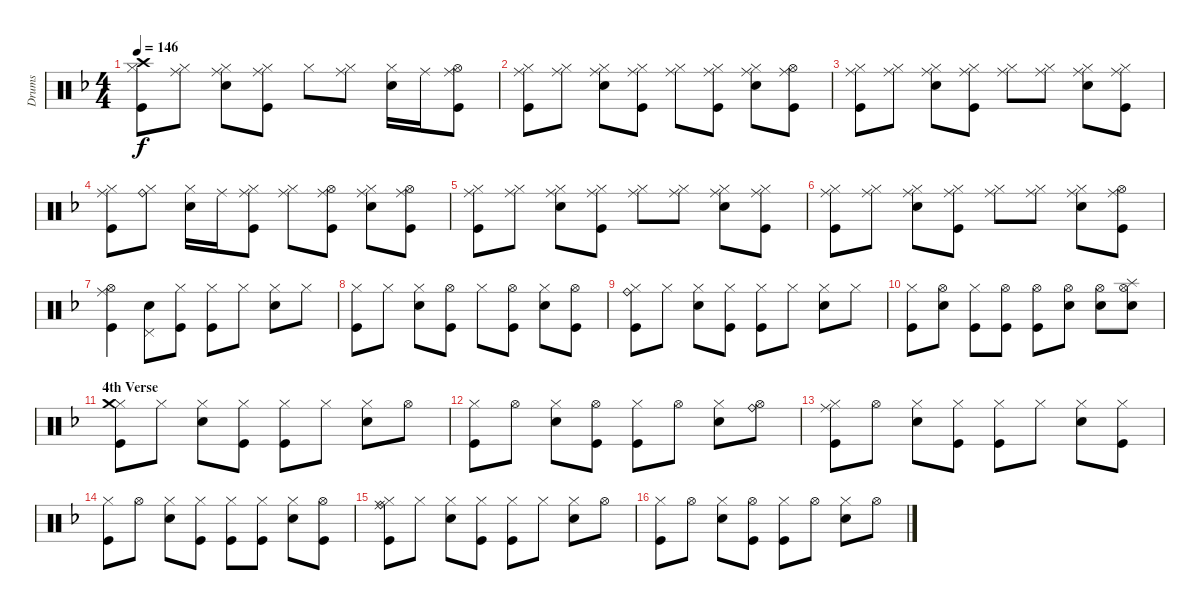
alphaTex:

\track ("Drums" "Drums") {instrument percussion}
\staff {score}
\articulation defaults
\ts (4 4)
\tempo 146
\clef neutral
\ks f
("Kick (hit)" "Hi-Hat (closed)" "Crash high (hit)").8{dy f} ("Hi-Hat (closed)" "Ride (middle)").8 ("Ride (middle)" "Snare (hit) 2" "Hi-Hat (closed)").8 ("Kick (hit)" "Hi-Hat (closed)" "Ride (middle)").8 "Hi-Hat (closed)".8 ("Hi-Hat (closed)" "Ride (middle)").8 ("Snare (hit) 2" "Hi-Hat (closed)").16 "Ride (middle)".16 ("Ride (middle)" "Kick (hit)" "Hi-Hat (open)").8 |
("Hi-Hat (closed)" "Ride (middle)" "Kick (hit)").8 ("Hi-Hat (closed)" "Ride (middle)").8 ("Ride (middle)" "Snare (hit) 2" "Hi-Hat (closed)").8 ("Kick (hit)" "Hi-Hat (closed)" "Ride (middle)").8 ("Hi-Hat (closed)" "Ride (middle)").8 ("Kick (hit)" "Hi-Hat (closed)" "Ride (middle)").8 ("Ride (middle)" "Snare (hit) 2" "Hi-Hat (closed)").8 ("Hi-Hat (open)" "Ride (middle)" "Kick (hit)").8 |
("Hi-Hat (closed)" "Ride (middle)" "Kick (hit)").8 ("Hi-Hat (closed)" "Ride (middle)").8 ("Ride (middle)" "Snare (hit) 2" "Hi-Hat (closed)").8 ("Hi-Hat (closed)" "Ride (middle)" "Kick (hit)").8 ("Hi-Hat (closed)" "Ride (middle)").8 ("Hi-Hat (closed)" "Ride (middle)").8 ("Ride (middle)" "Snare (hit) 2" "Hi-Hat (closed)").8 ("Kick (hit)" "Hi-Hat (closed)" "Ride (middle)").8 |
("Ride (middle)" "Kick (hit)" "Hi-Hat (closed)").8 ("Hi-Hat (closed)" "Ride (bell)").8 ("Snare (hit) 2" "Hi-Hat (closed)").16 "Ride (middle)".16 ("Hi-Hat (closed)" "Ride (middle)" "Kick (hit)").8 ("Hi-Hat (closed)" "Ride (middle)").8 ("Ride (middle)" "Kick (hit)" "Hi-Hat (open)").8 ("Snare (hit) 2" "Hi-Hat (closed)" "Ride (middle)").8 ("Ride (middle)" "Kick (hit)" "Hi-Hat (open)").8 |
("Kick (hit)" "Hi-Hat (closed)" "Ride (middle)").8 ("Hi-Hat (closed)" "Ride (middle)").8 ("Ride (middle)" "Snare (hit) 2" "Hi-Hat (closed)").8 ("Ride (middle)" "Kick (hit)" "Hi-Hat (closed)").8 ("Hi-Hat (closed)" "Ride (middle)").8 ("Hi-Hat (closed)" "Ride (middle)").8 ("Ride (middle)" "Snare (hit) 2" "Hi-Hat (closed)").8 ("Kick (hit)" "Hi-Hat (closed)" "Ride (middle)").8 |
("Ride (middle)" "Kick (hit)" "Hi-Hat (closed)").8 ("Hi-Hat (closed)" "Ride (middle)").8 ("Snare (hit) 2" "Hi-Hat (closed)" "Ride (middle)").8 ("Kick (hit)" "Hi-Hat (closed)" "Ride (middle)").8 ("Hi-Hat (closed)" "Ride (middle)").8 ("Hi-Hat (closed)" "Ride (middle)").8 ("Snare (hit) 2" "Hi-Hat (closed)" "Ride (middle)").8 ("Ride (middle)" "Kick (hit)" "Hi-Hat (open)").8 |
("Kick (hit)" "Hi-Hat (open)" "Ride (middle)").4 ("Snare (hit) 2" "Pedal Hi-Hat (hit)").8 ("Kick (hit)" "Hi-Hat (closed)").8 ("Kick (hit)" "Hi-Hat (closed)").8 "Hi-Hat (closed)".8 ("Snare (hit) 2" "Hi-Hat (closed)").8 "Hi-Hat (closed)".8 |
("Kick (hit)" "Hi-Hat (closed)").8 "Hi-Hat (closed)".8 ("Snare (hit) 2" "Hi-Hat (closed)").8 ("Kick (hit)" "Hi-Hat (open)").8 "Hi-Hat (closed)".8 ("Kick (hit)" "Hi-Hat (open)").8 ("Snare (hit) 2" "Hi-Hat (closed)").8 ("Kick (hit)" "Hi-Hat (open)").8 |
("Kick (hit)" "Hi-Hat (closed)" "Ride (bell)").8 "Hi-Hat (closed)".8 ("Snare (hit) 2" "Hi-Hat (closed)").8 ("Kick (hit)" "Hi-Hat (closed)").8 ("Kick (hit)" "Hi-Hat (closed)").8 "Hi-Hat (closed)".8 ("Snare (hit) 2" "Hi-Hat (closed)").8 "Hi-Hat (closed)".8 |
("Kick (hit)" "Hi-Hat (closed)").8 ("Snare (hit) 2" "Hi-Hat (open)").8 ("Kick (hit)" "Hi-Hat (closed)").8 ("Kick (hit)" "Hi-Hat (open)").8 ("Kick (hit)" "Hi-Hat (open)").8 ("Snare (hit) 2" "Hi-Hat (open)").8 ("Snare (hit) 2" "Hi-Hat (open)").8 ("Snare (hit) 2" "Hi-Hat (open)" "Splash (hit)").8 |
\section ("" "4th Verse")
("Kick (hit)" "Hi-Hat (closed)" "Crash medium (hit)").8 "Hi-Hat (closed)".8 ("Snare (hit) 2" "Hi-Hat (closed)").8 ("Kick (hit)" "Hi-Hat (closed)").8 ("Kick (hit)" "Hi-Hat (closed)").8 "Hi-Hat (closed)".8 ("Snare (hit) 2" "Hi-Hat (closed)").8 "Hi-Hat (open)".8 |
("Kick (hit)" "Hi-Hat (closed)").8 "Hi-Hat (open)".8 ("Snare (hit) 2" "Hi-Hat (closed)").8 ("Kick (hit)" "Hi-Hat (open)").8 ("Kick (hit)" "Hi-Hat (closed)").8 "Hi-Hat (open)".8 ("Snare (hit) 2" "Hi-Hat (closed)").8 ("Hi-Hat (open)" "Ride (bell)").8 |
("Kick (hit)" "Hi-Hat (closed)" "Ride (middle)").8 "Hi-Hat (open)".8 ("Snare (hit) 2" "Hi-Hat (closed)").8 ("Kick (hit)" "Hi-Hat (closed)").8 ("Kick (hit)" "Hi-Hat (closed)").8 "Hi-Hat (closed)".8 ("Snare (hit) 2" "Hi-Hat (closed)").8 ("Kick (hit)" "Hi-Hat (closed)").8 |
("Kick (hit)" "Hi-Hat (closed)").8 "Hi-Hat (open)".8 ("Snare (hit) 2" "Hi-Hat (closed)").8 ("Kick (hit)" "Hi-Hat (closed)").8 ("Kick (hit)" "Hi-Hat (closed)").8 ("Kick (hit)" "Hi-Hat (closed)").8 ("Snare (hit) 2" "Hi-Hat (closed)").8 ("Kick (hit)" "Hi-Hat (open)").8 |
("Kick (hit)" "Hi-Hat (closed)" "Ride (middle)" "Ride (bell)").8 "Hi-Hat (closed)".8 ("Snare (hit) 2" "Hi-Hat (closed)").8 ("Kick (hit)" "Hi-Hat (closed)").8 ("Kick (hit)" "Hi-Hat (closed)").8 "Hi-Hat (closed)".8 ("Snare (hit) 2" "Hi-Hat (closed)").8 "Hi-Hat (open)".8 |
("Kick (hit)" "Hi-Hat (closed)").8 "Hi-Hat (open)".8 ("Snare (hit) 2" "Hi-Hat (closed)").8 ("Kick (hit)" "Hi-Hat (open)").8 ("Kick (hit)" "Hi-Hat (closed)").8 "Hi-Hat (open)".8 ("Snare (hit) 2" "Hi-Hat (closed)").8 "Hi-Hat (open)".8
